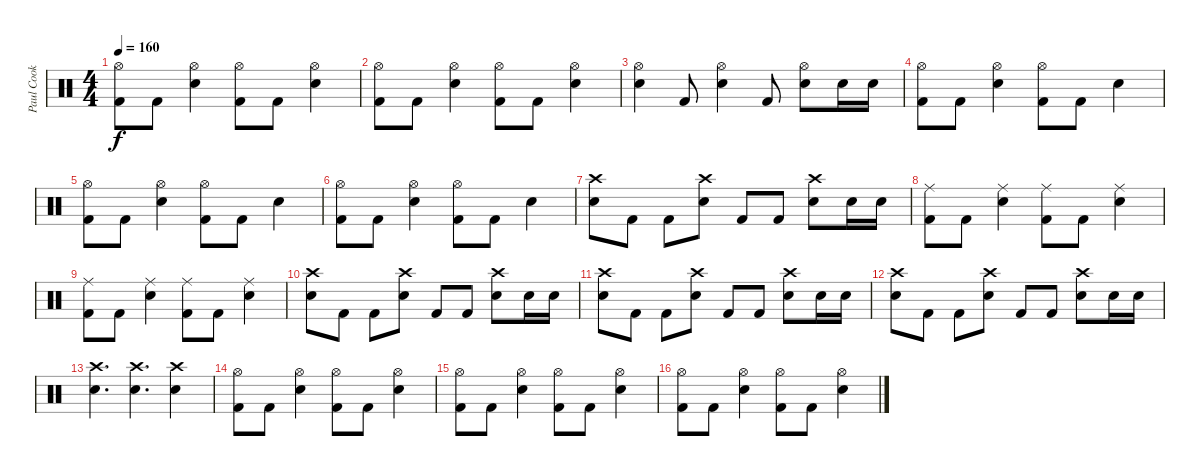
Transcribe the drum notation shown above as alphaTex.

\track ("Paul Cook" "Paul Cook") {instrument percussion}
\staff {score}
\articulation defaults
\ts (4 4)
\tempo 160
\clef neutral
\ks c
("Hi-Hat (open)" "Kick (hit) 2").8{dy f} "Kick (hit) 2".8 ("Hi-Hat (open)" "Electric Snare (hit)").4 ("Hi-Hat (open)" "Kick (hit) 2").8 "Kick (hit) 2".8 ("Hi-Hat (open)" "Electric Snare (hit)").4 |
("Hi-Hat (open)" "Kick (hit) 2").8 "Kick (hit) 2".8 ("Hi-Hat (open)" "Electric Snare (hit)").4 ("Hi-Hat (open)" "Kick (hit) 2").8 "Kick (hit) 2".8 ("Hi-Hat (open)" "Electric Snare (hit)").4 |
("Hi-Hat (open)" "Electric Snare (hit)").4 "Kick (hit) 2".8 ("Hi-Hat (open)" "Electric Snare (hit)").4 "Kick (hit) 2".8 ("Hi-Hat (open)" "Electric Snare (hit)").8 "Electric Snare (hit)".16 "Electric Snare (hit)".16 |
("Hi-Hat (open)" "Kick (hit) 2").8 "Kick (hit) 2".8 ("Hi-Hat (open)" "Electric Snare (hit)").4 ("Hi-Hat (open)" "Kick (hit) 2").8 "Kick (hit) 2".8 "Electric Snare (hit)".4 |
("Hi-Hat (open)" "Kick (hit) 2").8 "Kick (hit) 2".8 ("Hi-Hat (open)" "Electric Snare (hit)").4 ("Hi-Hat (open)" "Kick (hit) 2").8 "Kick (hit) 2".8 "Electric Snare (hit)".4 |
("Hi-Hat (open)" "Kick (hit) 2").8 "Kick (hit) 2".8 ("Hi-Hat (open)" "Electric Snare (hit)").4 ("Hi-Hat (open)" "Kick (hit) 2").8 "Kick (hit) 2".8 "Electric Snare (hit)".4 |
("Crash high (hit)" "Electric Snare (hit)").8 "Kick (hit) 2".8 "Kick (hit) 2".8 ("Crash high (hit)" "Electric Snare (hit)").8 "Kick (hit) 2".8 "Kick (hit) 2".8 ("Crash high (hit)" "Electric Snare (hit)").8 "Electric Snare (hit)".16 "Electric Snare (hit)".16 |
("Ride (middle)" "Kick (hit) 2").8 "Kick (hit) 2".8 ("Ride (middle)" "Electric Snare (hit)").4 ("Ride (middle)" "Kick (hit) 2").8 "Kick (hit) 2".8 ("Ride (middle)" "Electric Snare (hit)").4 |
("Ride (middle)" "Kick (hit) 2").8 "Kick (hit) 2".8 ("Ride (middle)" "Electric Snare (hit)").4 ("Ride (middle)" "Kick (hit) 2").8 "Kick (hit) 2".8 ("Ride (middle)" "Electric Snare (hit)").4 |
("Crash high (hit)" "Electric Snare (hit)").8 "Kick (hit) 2".8 "Kick (hit) 2".8 ("Crash high (hit)" "Electric Snare (hit)").8 "Kick (hit) 2".8 "Kick (hit) 2".8 ("Crash high (hit)" "Electric Snare (hit)").8 "Electric Snare (hit)".16 "Electric Snare (hit)".16 |
("Crash high (hit)" "Electric Snare (hit)").8 "Kick (hit) 2".8 "Kick (hit) 2".8 ("Crash high (hit)" "Electric Snare (hit)").8 "Kick (hit) 2".8 "Kick (hit) 2".8 ("Crash high (hit)" "Electric Snare (hit)").8 "Electric Snare (hit)".16 "Electric Snare (hit)".16 |
("Crash high (hit)" "Electric Snare (hit)").8 "Kick (hit) 2".8 "Kick (hit) 2".8 ("Crash high (hit)" "Electric Snare (hit)").8 "Kick (hit) 2".8 "Kick (hit) 2".8 ("Crash high (hit)" "Electric Snare (hit)").8 "Electric Snare (hit)".16 "Electric Snare (hit)".16 |
("Crash high (hit)" "Electric Snare (hit)").4{d} ("Crash high (hit)" "Electric Snare (hit)").4{d} ("Crash high (hit)" "Electric Snare (hit)").4 |
("Hi-Hat (open)" "Kick (hit) 2").8 "Kick (hit) 2".8 ("Hi-Hat (open)" "Electric Snare (hit)").4 ("Hi-Hat (open)" "Kick (hit) 2").8 "Kick (hit) 2".8 ("Hi-Hat (open)" "Electric Snare (hit)").4 |
("Hi-Hat (open)" "Kick (hit) 2").8 "Kick (hit) 2".8 ("Hi-Hat (open)" "Electric Snare (hit)").4 ("Hi-Hat (open)" "Kick (hit) 2").8 "Kick (hit) 2".8 ("Hi-Hat (open)" "Electric Snare (hit)").4 |
("Hi-Hat (open)" "Kick (hit) 2").8 "Kick (hit) 2".8 ("Hi-Hat (open)" "Electric Snare (hit)").4 ("Hi-Hat (open)" "Kick (hit) 2").8 "Kick (hit) 2".8 ("Hi-Hat (open)" "Electric Snare (hit)").4
